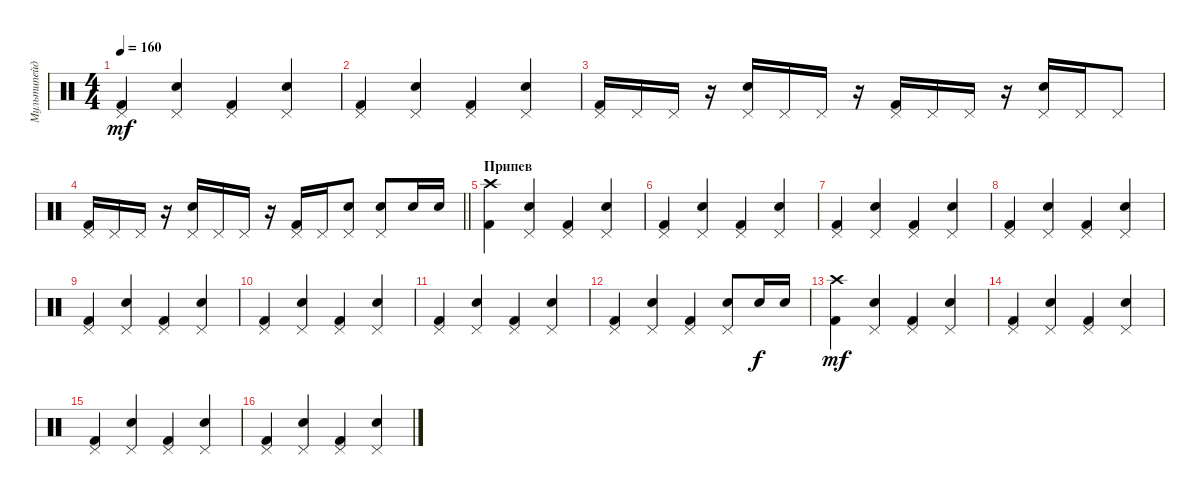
\track ("Мультипейджер" "Мультипейд") {instrument percussion}
\staff {score}
\articulation defaults
\ts (4 4)
\tempo 160
\clef neutral
\ks c
("Pedal Hi-Hat (hit)" "Kick (hit) 2").4{dy mf} ("Pedal Hi-Hat (hit)" "Snare (hit) 2").4 ("Pedal Hi-Hat (hit)" "Kick (hit) 2").4 ("Pedal Hi-Hat (hit)" "Snare (hit) 2").4 |
("Pedal Hi-Hat (hit)" "Kick (hit) 2").4 ("Pedal Hi-Hat (hit)" "Snare (hit) 2").4 ("Pedal Hi-Hat (hit)" "Kick (hit) 2").4 ("Pedal Hi-Hat (hit)" "Snare (hit) 2").4 |
("Pedal Hi-Hat (hit)" "Kick (hit) 2").16 "Pedal Hi-Hat (hit)".16 "Pedal Hi-Hat (hit)".16 r.16 ("Pedal Hi-Hat (hit)" "Snare (hit) 2").16 "Pedal Hi-Hat (hit)".16 "Pedal Hi-Hat (hit)".16 r.16 ("Pedal Hi-Hat (hit)" "Kick (hit) 2").16 "Pedal Hi-Hat (hit)".16 "Pedal Hi-Hat (hit)".16 r.16 ("Pedal Hi-Hat (hit)" "Snare (hit) 2").16 "Pedal Hi-Hat (hit)".16 "Pedal Hi-Hat (hit)".8 |
\barLineRight lightlight
("Pedal Hi-Hat (hit)" "Kick (hit) 2").16 "Pedal Hi-Hat (hit)".16 "Pedal Hi-Hat (hit)".16 r.16 ("Pedal Hi-Hat (hit)" "Snare (hit) 2").16 "Pedal Hi-Hat (hit)".16 "Pedal Hi-Hat (hit)".16 r.16 ("Pedal Hi-Hat (hit)" "Kick (hit) 2").16 "Pedal Hi-Hat (hit)".16 ("Pedal Hi-Hat (hit)" "Electric Snare (hit)").8 ("Pedal Hi-Hat (hit)" "Electric Snare (hit)").8 "Electric Snare (hit)".16 "Electric Snare (hit)".16 |
\section ("" "Припев")
("Crash high (hit)" "Kick (hit) 2").4 ("Pedal Hi-Hat (hit)" "Snare (hit) 2").4 ("Pedal Hi-Hat (hit)" "Kick (hit) 2").4 ("Pedal Hi-Hat (hit)" "Snare (hit) 2").4 |
("Pedal Hi-Hat (hit)" "Kick (hit) 2").4 ("Pedal Hi-Hat (hit)" "Snare (hit) 2").4 ("Pedal Hi-Hat (hit)" "Kick (hit) 2").4 ("Pedal Hi-Hat (hit)" "Snare (hit) 2").4 |
("Pedal Hi-Hat (hit)" "Kick (hit) 2").4 ("Pedal Hi-Hat (hit)" "Snare (hit) 2").4 ("Pedal Hi-Hat (hit)" "Kick (hit) 2").4 ("Pedal Hi-Hat (hit)" "Snare (hit) 2").4 |
("Pedal Hi-Hat (hit)" "Kick (hit) 2").4 ("Pedal Hi-Hat (hit)" "Snare (hit) 2").4 ("Pedal Hi-Hat (hit)" "Kick (hit) 2").4 ("Pedal Hi-Hat (hit)" "Snare (hit) 2").4 |
("Pedal Hi-Hat (hit)" "Kick (hit) 2").4 ("Pedal Hi-Hat (hit)" "Snare (hit) 2").4 ("Pedal Hi-Hat (hit)" "Kick (hit) 2").4 ("Pedal Hi-Hat (hit)" "Snare (hit) 2").4 |
("Pedal Hi-Hat (hit)" "Kick (hit) 2").4 ("Pedal Hi-Hat (hit)" "Snare (hit) 2").4 ("Pedal Hi-Hat (hit)" "Kick (hit) 2").4 ("Pedal Hi-Hat (hit)" "Snare (hit) 2").4 |
("Pedal Hi-Hat (hit)" "Kick (hit) 2").4 ("Pedal Hi-Hat (hit)" "Snare (hit) 2").4 ("Pedal Hi-Hat (hit)" "Kick (hit) 2").4 ("Pedal Hi-Hat (hit)" "Snare (hit) 2").4 |
("Pedal Hi-Hat (hit)" "Kick (hit) 2").4 ("Pedal Hi-Hat (hit)" "Snare (hit) 2").4 ("Pedal Hi-Hat (hit)" "Kick (hit) 2").4 ("Pedal Hi-Hat (hit)" "Snare (hit) 2").8 "Electric Snare (hit)".16{dy f} "Electric Snare (hit)".16 |
("Crash high (hit)" "Kick (hit) 2").4{dy mf} ("Pedal Hi-Hat (hit)" "Snare (hit) 2").4 ("Pedal Hi-Hat (hit)" "Kick (hit) 2").4 ("Pedal Hi-Hat (hit)" "Snare (hit) 2").4 |
("Pedal Hi-Hat (hit)" "Kick (hit) 2").4 ("Pedal Hi-Hat (hit)" "Snare (hit) 2").4 ("Pedal Hi-Hat (hit)" "Kick (hit) 2").4 ("Pedal Hi-Hat (hit)" "Snare (hit) 2").4 |
("Pedal Hi-Hat (hit)" "Kick (hit) 2").4 ("Pedal Hi-Hat (hit)" "Snare (hit) 2").4 ("Pedal Hi-Hat (hit)" "Kick (hit) 2").4 ("Pedal Hi-Hat (hit)" "Snare (hit) 2").4 |
("Pedal Hi-Hat (hit)" "Kick (hit) 2").4 ("Pedal Hi-Hat (hit)" "Snare (hit) 2").4 ("Pedal Hi-Hat (hit)" "Kick (hit) 2").4 ("Pedal Hi-Hat (hit)" "Snare (hit) 2").4
